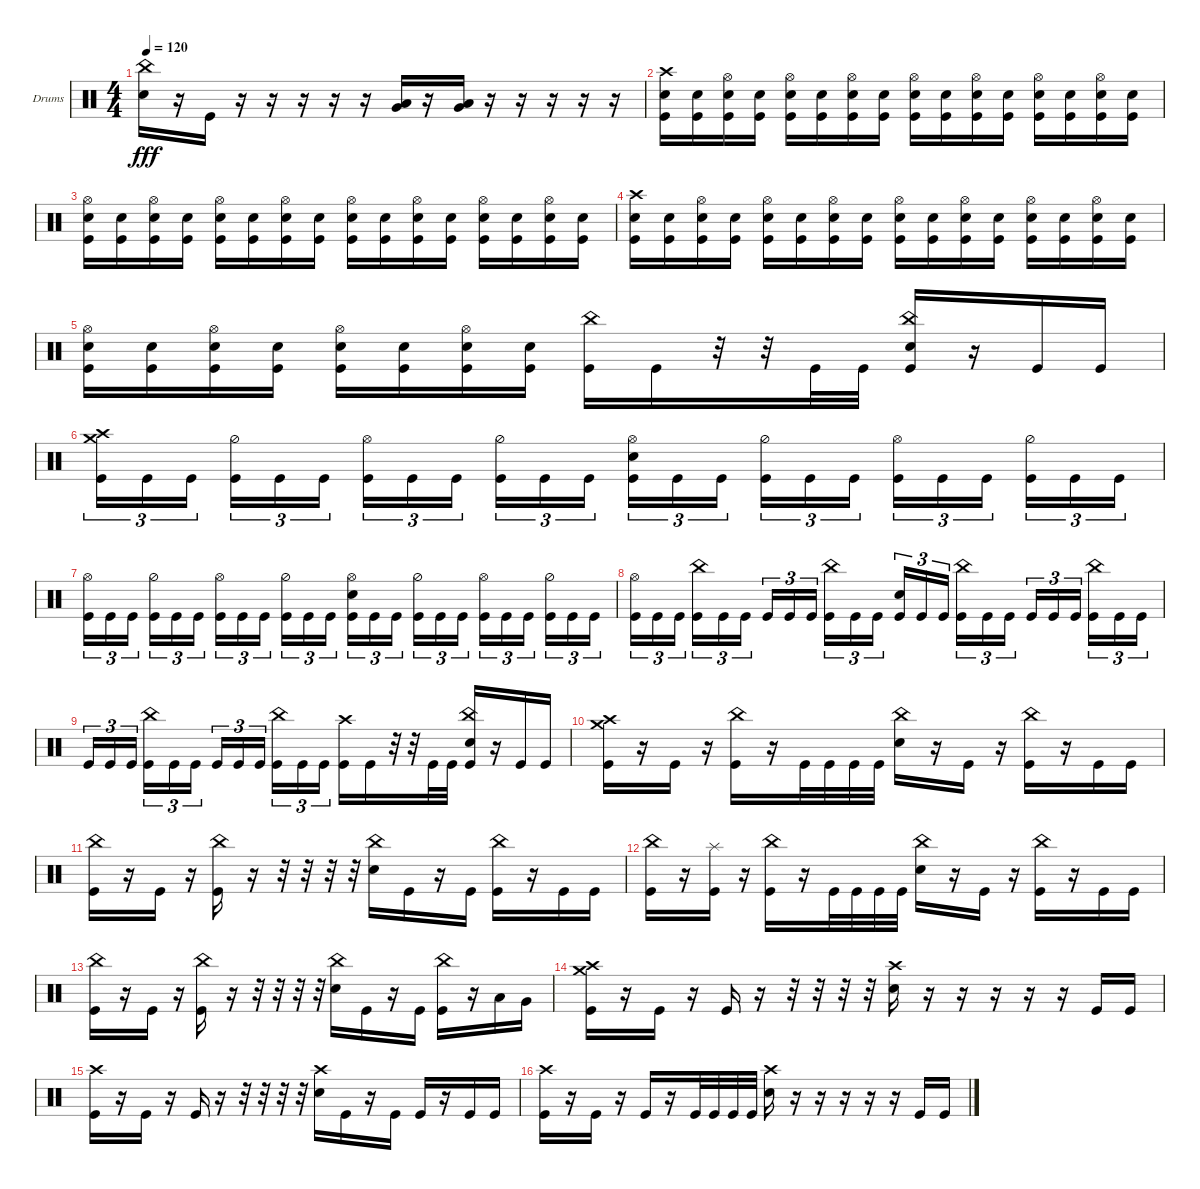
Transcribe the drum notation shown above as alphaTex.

\bracketExtendMode groupsimilarinstruments
\firstSystemTrackNameOrientation horizontal
\otherSystemsTrackNameOrientation horizontal
\track ("Drumkit" "Drums") {instrument percussion}
\staff {score}
\articulation defaults
\ts (4 4)
\tempo 120
\clef neutral
\ks c
("Snare (hit) 2" "China (hit)").16{dy fff} r.16 "Kick (hit)".16 r.16 r.16 r.16 r.16 r.16 ("Very Low Tom (hit)" "Low Tom (hit)").16 r.16 ("Very Low Tom (hit)" "Low Tom (hit)").16 r.16 r.16 r.16 r.16 r.16 |
("Snare (hit) 2" "Kick (hit)" "Crash high (hit)").16 ("Snare (hit) 2" "Kick (hit)").16 ("Snare (hit) 2" "Kick (hit)" "Hi-Hat (open)").16 ("Snare (hit) 2" "Kick (hit)").16 ("Snare (hit) 2" "Kick (hit)" "Hi-Hat (open)").16 ("Snare (hit) 2" "Kick (hit)").16 ("Snare (hit) 2" "Kick (hit)" "Hi-Hat (open)").16 ("Snare (hit) 2" "Kick (hit)").16 ("Snare (hit) 2" "Kick (hit)" "Hi-Hat (open)").16 ("Snare (hit) 2" "Kick (hit)").16 ("Snare (hit) 2" "Kick (hit)" "Hi-Hat (open)").16 ("Snare (hit) 2" "Kick (hit)").16 ("Snare (hit) 2" "Kick (hit)" "Hi-Hat (open)").16 ("Snare (hit) 2" "Kick (hit)").16 ("Snare (hit) 2" "Kick (hit)" "Hi-Hat (open)").16 ("Snare (hit) 2" "Kick (hit)").16 |
("Snare (hit) 2" "Kick (hit)" "Hi-Hat (open)").16 ("Snare (hit) 2" "Kick (hit)").16 ("Snare (hit) 2" "Kick (hit)" "Hi-Hat (open)").16 ("Snare (hit) 2" "Kick (hit)").16 ("Snare (hit) 2" "Kick (hit)" "Hi-Hat (open)").16 ("Snare (hit) 2" "Kick (hit)").16 ("Snare (hit) 2" "Kick (hit)" "Hi-Hat (open)").16 ("Snare (hit) 2" "Kick (hit)").16 ("Snare (hit) 2" "Kick (hit)" "Hi-Hat (open)").16 ("Snare (hit) 2" "Kick (hit)").16 ("Snare (hit) 2" "Kick (hit)" "Hi-Hat (open)").16 ("Snare (hit) 2" "Kick (hit)").16 ("Snare (hit) 2" "Kick (hit)" "Hi-Hat (open)").16 ("Snare (hit) 2" "Kick (hit)").16 ("Snare (hit) 2" "Kick (hit)" "Hi-Hat (open)").16 ("Snare (hit) 2" "Kick (hit)").16 |
("Snare (hit) 2" "Kick (hit)" "Crash high (hit)").16 ("Snare (hit) 2" "Kick (hit)").16 ("Snare (hit) 2" "Kick (hit)" "Hi-Hat (open)").16 ("Snare (hit) 2" "Kick (hit)").16 ("Snare (hit) 2" "Kick (hit)" "Hi-Hat (open)").16 ("Snare (hit) 2" "Kick (hit)").16 ("Snare (hit) 2" "Kick (hit)" "Hi-Hat (open)").16 ("Snare (hit) 2" "Kick (hit)").16 ("Snare (hit) 2" "Kick (hit)" "Hi-Hat (open)").16 ("Snare (hit) 2" "Kick (hit)").16 ("Snare (hit) 2" "Kick (hit)" "Hi-Hat (open)").16 ("Snare (hit) 2" "Kick (hit)").16 ("Snare (hit) 2" "Kick (hit)" "Hi-Hat (open)").16 ("Snare (hit) 2" "Kick (hit)").16 ("Snare (hit) 2" "Kick (hit)" "Hi-Hat (open)").16 ("Snare (hit) 2" "Kick (hit)").16 |
("Snare (hit) 2" "Kick (hit)" "Hi-Hat (open)").16 ("Snare (hit) 2" "Kick (hit)").16 ("Snare (hit) 2" "Kick (hit)" "Hi-Hat (open)").16 ("Snare (hit) 2" "Kick (hit)").16 ("Snare (hit) 2" "Kick (hit)" "Hi-Hat (open)").16 ("Snare (hit) 2" "Kick (hit)").16 ("Snare (hit) 2" "Kick (hit)" "Hi-Hat (open)").16 ("Snare (hit) 2" "Kick (hit)").16 ("Kick (hit)" "China (hit)").16 "Kick (hit)".16 r.32 r.32 "Kick (hit)".32 "Kick (hit)".32 ("Kick (hit)" "China (hit)" "Snare (hit) 2").16 r.16 "Kick (hit)".16 "Kick (hit)".16 |
("Kick (hit)" "Crash high (hit)" "Crash medium (hit)").16{tu (3 2)} "Kick (hit)".16{tu (3 2)} "Kick (hit)".16{tu (3 2)} ("Kick (hit)" "Hi-Hat (half)").16{tu (3 2)} "Kick (hit)".16{tu (3 2)} "Kick (hit)".16{tu (3 2)} ("Kick (hit)" "Hi-Hat (open)").16{tu (3 2)} "Kick (hit)".16{tu (3 2)} "Kick (hit)".16{tu (3 2)} ("Kick (hit)" "Hi-Hat (half)").16{tu (3 2)} "Kick (hit)".16{tu (3 2)} "Kick (hit)".16{tu (3 2)} ("Kick (hit)" "Snare (hit) 2" "Hi-Hat (open)").16{tu (3 2)} "Kick (hit)".16{tu (3 2)} "Kick (hit)".16{tu (3 2)} ("Kick (hit)" "Hi-Hat (half)").16{tu (3 2)} "Kick (hit)".16{tu (3 2)} "Kick (hit)".16{tu (3 2)} ("Kick (hit)" "Hi-Hat (open)").16{tu (3 2)} "Kick (hit)".16{tu (3 2)} "Kick (hit)".16{tu (3 2)} ("Kick (hit)" "Hi-Hat (half)").16{tu (3 2)} "Kick (hit)".16{tu (3 2)} "Kick (hit)".16{tu (3 2)} |
("Kick (hit)" "Hi-Hat (open)").16{tu (3 2)} "Kick (hit)".16{tu (3 2)} "Kick (hit)".16{tu (3 2)} ("Kick (hit)" "Hi-Hat (half)").16{tu (3 2)} "Kick (hit)".16{tu (3 2)} "Kick (hit)".16{tu (3 2)} ("Kick (hit)" "Hi-Hat (open)").16{tu (3 2)} "Kick (hit)".16{tu (3 2)} "Kick (hit)".16{tu (3 2)} ("Kick (hit)" "Hi-Hat (half)").16{tu (3 2)} "Kick (hit)".16{tu (3 2)} "Kick (hit)".16{tu (3 2)} ("Kick (hit)" "Snare (hit) 2" "Hi-Hat (open)").16{tu (3 2)} "Kick (hit)".16{tu (3 2)} "Kick (hit)".16{tu (3 2)} ("Kick (hit)" "Hi-Hat (half)").16{tu (3 2)} "Kick (hit)".16{tu (3 2)} "Kick (hit)".16{tu (3 2)} ("Kick (hit)" "Hi-Hat (open)").16{tu (3 2)} "Kick (hit)".16{tu (3 2)} "Kick (hit)".16{tu (3 2)} ("Kick (hit)" "Hi-Hat (half)").16{tu (3 2)} "Kick (hit)".16{tu (3 2)} "Kick (hit)".16{tu (3 2)} |
("Kick (hit)" "Hi-Hat (open)").16{tu (3 2)} "Kick (hit)".16{tu (3 2)} "Kick (hit)".16{tu (3 2)} ("Kick (hit)" "China (hit)").16{tu (3 2)} "Kick (hit)".16{tu (3 2)} "Kick (hit)".16{tu (3 2)} "Kick (hit)".16{tu (3 2)} "Kick (hit)".16{tu (3 2)} "Kick (hit)".16{tu (3 2)} ("Kick (hit)" "China (hit)").16{tu (3 2)} "Kick (hit)".16{tu (3 2)} "Kick (hit)".16{tu (3 2)} ("Kick (hit)" "Snare (hit) 2").16{tu (3 2)} "Kick (hit)".16{tu (3 2)} "Kick (hit)".16{tu (3 2)} ("Kick (hit)" "China (hit)").16{tu (3 2)} "Kick (hit)".16{tu (3 2)} "Kick (hit)".16{tu (3 2)} "Kick (hit)".16{tu (3 2)} "Kick (hit)".16{tu (3 2)} "Kick (hit)".16{tu (3 2)} ("Kick (hit)" "China (hit)").16{tu (3 2)} "Kick (hit)".16{tu (3 2)} "Kick (hit)".16{tu (3 2)} |
"Kick (hit)".16{tu (3 2)} "Kick (hit)".16{tu (3 2)} "Kick (hit)".16{tu (3 2)} ("Kick (hit)" "China (hit)").16{tu (3 2)} "Kick (hit)".16{tu (3 2)} "Kick (hit)".16{tu (3 2)} "Kick (hit)".16{tu (3 2)} "Kick (hit)".16{tu (3 2)} "Kick (hit)".16{tu (3 2)} ("Kick (hit)" "China (hit)").16{tu (3 2)} "Kick (hit)".16{tu (3 2)} "Kick (hit)".16{tu (3 2)} ("Kick (hit)" "Crash high (hit)").16 "Kick (hit)".16 r.32 r.32 "Kick (hit)".32 "Kick (hit)".32 ("Snare (hit) 2" "Kick (hit)" "China (hit)").16 r.16 "Kick (hit)".16 "Kick (hit)".16 |
("Crash medium (hit)" "Crash high (hit)" "Kick (hit)").16 r.16 "Kick (hit)".16 r.16 ("China (hit)" "Kick (hit)").16 r.16 "Kick (hit)".32 "Kick (hit)".32 "Kick (hit)".32 "Kick (hit)".32 ("China (hit)" "Snare (hit) 2").16 r.16 "Kick (hit)".16 r.16 ("China (hit)" "Kick (hit)").16 r.16 "Kick (hit)".16 "Kick (hit)".16 |
("Kick (hit)" "China (hit)").16 r.16 "Kick (hit)".16 r.16 ("China (hit)" "Kick (hit)").16 r.16 r.32 r.32 r.32 r.32 ("China (hit)" "Snare (hit) 2").16 "Kick (hit)".16 r.16 "Kick (hit)".16 ("China (hit)" "Kick (hit)").16 r.16 "Kick (hit)".16 "Kick (hit)".16 |
("Kick (hit)" "China (hit)").16 r.16 ("Kick (hit)" "Splash (hit)").16 r.16 ("Kick (hit)" "China (hit)").16 r.16 "Kick (hit)".32 "Kick (hit)".32 "Kick (hit)".32 "Kick (hit)".32 ("China (hit)" "Snare (hit) 2").16 r.16 "Kick (hit)".16 r.16 ("China (hit)" "Kick (hit)").16 r.16 "Kick (hit)".16 "Kick (hit)".16 |
("Kick (hit)" "China (hit)").16 r.16 "Kick (hit)".16 r.16 ("China (hit)" "Kick (hit)").16 r.16 r.32 r.32 r.32 r.32 ("China (hit)" "Snare (hit) 2").16 "Kick (hit)".16 r.16 "Kick (hit)".16 ("China (hit)" "Kick (hit)").16 r.16 "Low Tom (hit)".16 "Very Low Tom (hit)".16 |
("Crash medium (hit)" "Crash high (hit)" "Kick (hit)").16 r.16 "Kick (hit)".16 r.16 "Kick (hit)".16 r.16 r.32 r.32 r.32 r.32 ("Snare (hit) 2" "Crash high (hit)").16 r.16 r.16 r.16 r.16 r.16 "Kick (hit)".16 "Kick (hit)".16 |
("Kick (hit)" "Crash high (hit)").16 r.16 "Kick (hit)".16 r.16 "Kick (hit)".16 r.16 r.32 r.32 r.32 r.32 ("Snare (hit) 2" "Crash high (hit)").16 "Kick (hit)".16 r.16 "Kick (hit)".16 "Kick (hit)".16 r.16 "Kick (hit)".16 "Kick (hit)".16 |
("Crash high (hit)" "Kick (hit)").16 r.16 "Kick (hit)".16 r.16 "Kick (hit)".16 r.16 "Kick (hit)".32 "Kick (hit)".32 "Kick (hit)".32 "Kick (hit)".32 ("Snare (hit) 2" "Crash high (hit)").16 r.16 r.16 r.16 r.16 r.16 "Kick (hit)".16 "Kick (hit)".16
